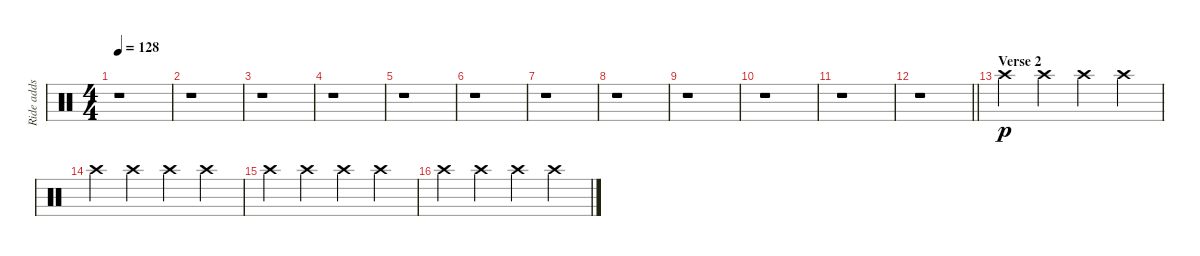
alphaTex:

\track ("Ride adds" "Ride adds") {instrument percussion}
\staff {score}
\articulation defaults
\ts (4 4)
\tempo 128
\clef neutral
\ks c
r.1{dy p} |
r.1 |
r.1 |
r.1 |
r.1 |
r.1 |
r.1 |
r.1 |
r.1 |
r.1 |
r.1 |
\barLineRight lightlight
r.1 |
\section ("" "Verse 2")
"Crash high (hit)".4 "Crash high (hit)".4 "Crash high (hit)".4 "Crash high (hit)".4 |
"Crash high (hit)".4 "Crash high (hit)".4 "Crash high (hit)".4 "Crash high (hit)".4 |
"Crash high (hit)".4 "Crash high (hit)".4 "Crash high (hit)".4 "Crash high (hit)".4 |
"Crash high (hit)".4 "Crash high (hit)".4 "Crash high (hit)".4 "Crash high (hit)".4
